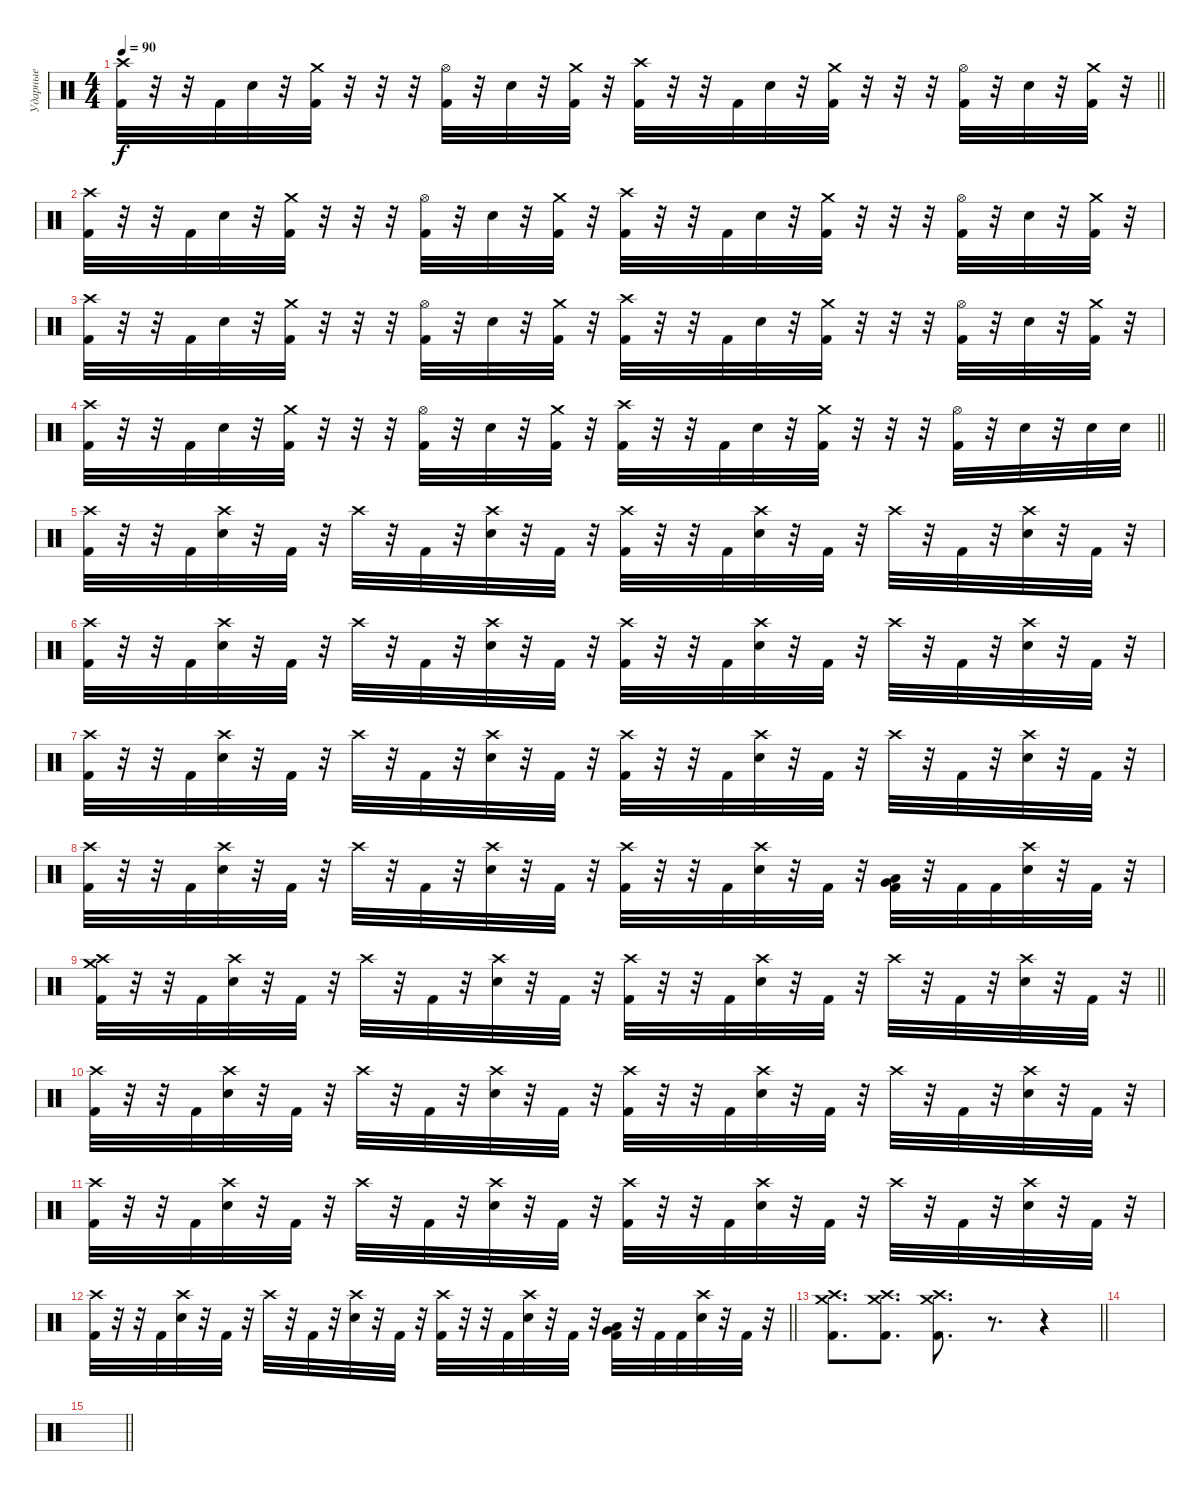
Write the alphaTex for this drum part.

\track ("Ударные" "Ударные") {instrument percussion}
\staff {score}
\articulation defaults
\ts (4 4)
\tempo 90
\clef neutral
\barLineRight lightlight
\ks c
("Crash high (hit)" "Kick (hit) 2").32{dy f} r.32 r.32 "Kick (hit) 2".32 "Electric Snare (hit)".32 r.32 ("Crash medium (hit)" "Kick (hit) 2").32 r.32 r.32 r.32 ("Hi-Hat (open)" "Kick (hit) 2").32 r.32 "Electric Snare (hit)".32 r.32 ("Crash medium (hit)" "Kick (hit) 2").32 r.32 ("Crash high (hit)" "Kick (hit) 2").32 r.32 r.32 "Kick (hit) 2".32 "Electric Snare (hit)".32 r.32 ("Crash medium (hit)" "Kick (hit) 2").32 r.32 r.32 r.32 ("Hi-Hat (open)" "Kick (hit) 2").32 r.32 "Electric Snare (hit)".32 r.32 ("Crash medium (hit)" "Kick (hit) 2").32 r.32 |
("Crash high (hit)" "Kick (hit) 2").32 r.32 r.32 "Kick (hit) 2".32 "Electric Snare (hit)".32 r.32 ("Crash medium (hit)" "Kick (hit) 2").32 r.32 r.32 r.32 ("Hi-Hat (open)" "Kick (hit) 2").32 r.32 "Electric Snare (hit)".32 r.32 ("Crash medium (hit)" "Kick (hit) 2").32 r.32 ("Crash high (hit)" "Kick (hit) 2").32 r.32 r.32 "Kick (hit) 2".32 "Electric Snare (hit)".32 r.32 ("Crash medium (hit)" "Kick (hit) 2").32 r.32 r.32 r.32 ("Hi-Hat (open)" "Kick (hit) 2").32 r.32 "Electric Snare (hit)".32 r.32 ("Crash medium (hit)" "Kick (hit) 2").32 r.32 |
("Crash high (hit)" "Kick (hit) 2").32 r.32 r.32 "Kick (hit) 2".32 "Electric Snare (hit)".32 r.32 ("Crash medium (hit)" "Kick (hit) 2").32 r.32 r.32 r.32 ("Hi-Hat (open)" "Kick (hit) 2").32 r.32 "Electric Snare (hit)".32 r.32 ("Crash medium (hit)" "Kick (hit) 2").32 r.32 ("Crash high (hit)" "Kick (hit) 2").32 r.32 r.32 "Kick (hit) 2".32 "Electric Snare (hit)".32 r.32 ("Crash medium (hit)" "Kick (hit) 2").32 r.32 r.32 r.32 ("Hi-Hat (open)" "Kick (hit) 2").32 r.32 "Electric Snare (hit)".32 r.32 ("Crash medium (hit)" "Kick (hit) 2").32 r.32 |
\barLineRight lightlight
("Crash high (hit)" "Kick (hit) 2").32 r.32 r.32 "Kick (hit) 2".32 "Electric Snare (hit)".32 r.32 ("Crash medium (hit)" "Kick (hit) 2").32 r.32 r.32 r.32 ("Hi-Hat (open)" "Kick (hit) 2").32 r.32 "Electric Snare (hit)".32 r.32 ("Crash medium (hit)" "Kick (hit) 2").32 r.32 ("Crash high (hit)" "Kick (hit) 2").32 r.32 r.32 "Kick (hit) 2".32 "Electric Snare (hit)".32 r.32 ("Crash medium (hit)" "Kick (hit) 2").32 r.32 r.32 r.32 ("Hi-Hat (open)" "Kick (hit) 2").32 r.32 "Electric Snare (hit)".32 r.32 "Electric Snare (hit)".32 "Electric Snare (hit)".32 |
("Crash high (hit)" "Kick (hit) 2").32 r.32 r.32 "Kick (hit) 2".32 ("Crash high (hit)" "Electric Snare (hit)").32 r.32 "Kick (hit) 2".32 r.32 "Crash high (hit)".32 r.32 "Kick (hit) 2".32 r.32 ("Crash high (hit)" "Electric Snare (hit)").32 r.32 "Kick (hit) 2".32 r.32 ("Crash high (hit)" "Kick (hit) 2").32 r.32 r.32 "Kick (hit) 2".32 ("Crash high (hit)" "Electric Snare (hit)").32 r.32 "Kick (hit) 2".32 r.32 "Crash high (hit)".32 r.32 "Kick (hit) 2".32 r.32 ("Crash high (hit)" "Electric Snare (hit)").32 r.32 "Kick (hit) 2".32 r.32 |
("Crash high (hit)" "Kick (hit) 2").32 r.32 r.32 "Kick (hit) 2".32 ("Crash high (hit)" "Electric Snare (hit)").32 r.32 "Kick (hit) 2".32 r.32 "Crash high (hit)".32 r.32 "Kick (hit) 2".32 r.32 ("Crash high (hit)" "Electric Snare (hit)").32 r.32 "Kick (hit) 2".32 r.32 ("Crash high (hit)" "Kick (hit) 2").32 r.32 r.32 "Kick (hit) 2".32 ("Crash high (hit)" "Electric Snare (hit)").32 r.32 "Kick (hit) 2".32 r.32 "Crash high (hit)".32 r.32 "Kick (hit) 2".32 r.32 ("Crash high (hit)" "Electric Snare (hit)").32 r.32 "Kick (hit) 2".32 r.32 |
("Crash high (hit)" "Kick (hit) 2").32 r.32 r.32 "Kick (hit) 2".32 ("Crash high (hit)" "Electric Snare (hit)").32 r.32 "Kick (hit) 2".32 r.32 "Crash high (hit)".32 r.32 "Kick (hit) 2".32 r.32 ("Crash high (hit)" "Electric Snare (hit)").32 r.32 "Kick (hit) 2".32 r.32 ("Crash high (hit)" "Kick (hit) 2").32 r.32 r.32 "Kick (hit) 2".32 ("Crash high (hit)" "Electric Snare (hit)").32 r.32 "Kick (hit) 2".32 r.32 "Crash high (hit)".32 r.32 "Kick (hit) 2".32 r.32 ("Crash high (hit)" "Electric Snare (hit)").32 r.32 "Kick (hit) 2".32 r.32 |
("Crash high (hit)" "Kick (hit) 2").32 r.32 r.32 "Kick (hit) 2".32 ("Crash high (hit)" "Electric Snare (hit)").32 r.32 "Kick (hit) 2".32 r.32 "Crash high (hit)".32 r.32 "Kick (hit) 2".32 r.32 ("Crash high (hit)" "Electric Snare (hit)").32 r.32 "Kick (hit) 2".32 r.32 ("Crash high (hit)" "Kick (hit) 2").32 r.32 r.32 "Kick (hit) 2".32 ("Crash high (hit)" "Electric Snare (hit)").32 r.32 "Kick (hit) 2".32 r.32 ("Low Tom (hit)" "Very Low Tom (hit)" "Kick (hit) 2").32 r.32 "Kick (hit) 2".32 "Kick (hit) 2".32 ("Crash high (hit)" "Electric Snare (hit)").32 r.32 "Kick (hit) 2".32 r.32 |
\barLineRight lightlight
("Crash medium (hit)" "Crash high (hit)" "Kick (hit) 2").32 r.32 r.32 "Kick (hit) 2".32 ("Crash high (hit)" "Electric Snare (hit)").32 r.32 "Kick (hit) 2".32 r.32 "Crash high (hit)".32 r.32 "Kick (hit) 2".32 r.32 ("Crash high (hit)" "Electric Snare (hit)").32 r.32 "Kick (hit) 2".32 r.32 ("Crash high (hit)" "Kick (hit) 2").32 r.32 r.32 "Kick (hit) 2".32 ("Crash high (hit)" "Electric Snare (hit)").32 r.32 "Kick (hit) 2".32 r.32 "Crash high (hit)".32 r.32 "Kick (hit) 2".32 r.32 ("Crash high (hit)" "Electric Snare (hit)").32 r.32 "Kick (hit) 2".32 r.32 |
("Crash high (hit)" "Kick (hit) 2").32 r.32 r.32 "Kick (hit) 2".32 ("Crash high (hit)" "Electric Snare (hit)").32 r.32 "Kick (hit) 2".32 r.32 "Crash high (hit)".32 r.32 "Kick (hit) 2".32 r.32 ("Crash high (hit)" "Electric Snare (hit)").32 r.32 "Kick (hit) 2".32 r.32 ("Crash high (hit)" "Kick (hit) 2").32 r.32 r.32 "Kick (hit) 2".32 ("Crash high (hit)" "Electric Snare (hit)").32 r.32 "Kick (hit) 2".32 r.32 "Crash high (hit)".32 r.32 "Kick (hit) 2".32 r.32 ("Crash high (hit)" "Electric Snare (hit)").32 r.32 "Kick (hit) 2".32 r.32 |
("Crash high (hit)" "Kick (hit) 2").32 r.32 r.32 "Kick (hit) 2".32 ("Crash high (hit)" "Electric Snare (hit)").32 r.32 "Kick (hit) 2".32 r.32 "Crash high (hit)".32 r.32 "Kick (hit) 2".32 r.32 ("Crash high (hit)" "Electric Snare (hit)").32 r.32 "Kick (hit) 2".32 r.32 ("Crash high (hit)" "Kick (hit) 2").32 r.32 r.32 "Kick (hit) 2".32 ("Crash high (hit)" "Electric Snare (hit)").32 r.32 "Kick (hit) 2".32 r.32 "Crash high (hit)".32 r.32 "Kick (hit) 2".32 r.32 ("Crash high (hit)" "Electric Snare (hit)").32 r.32 "Kick (hit) 2".32 r.32 |
\barLineRight lightlight
("Crash high (hit)" "Kick (hit) 2").32 r.32 r.32 "Kick (hit) 2".32 ("Crash high (hit)" "Electric Snare (hit)").32 r.32 "Kick (hit) 2".32 r.32 "Crash high (hit)".32 r.32 "Kick (hit) 2".32 r.32 ("Crash high (hit)" "Electric Snare (hit)").32 r.32 "Kick (hit) 2".32 r.32 ("Crash high (hit)" "Kick (hit) 2").32 r.32 r.32 "Kick (hit) 2".32 ("Crash high (hit)" "Electric Snare (hit)").32 r.32 "Kick (hit) 2".32 r.32 ("Low Tom (hit)" "Very Low Tom (hit)" "Kick (hit) 2").32 r.32 "Kick (hit) 2".32 "Kick (hit) 2".32 ("Crash high (hit)" "Electric Snare (hit)").32 r.32 "Kick (hit) 2".32 r.32 |
\barLineRight lightlight
("Crash high (hit)" "Crash medium (hit)" "Kick (hit) 2").8{d} ("Crash high (hit)" "Crash medium (hit)" "Kick (hit) 2").8{d} ("Crash high (hit)" "Crash medium (hit)" "Kick (hit) 2").8{d} r.8{d} r.4 |
|
\barLineRight lightlight
